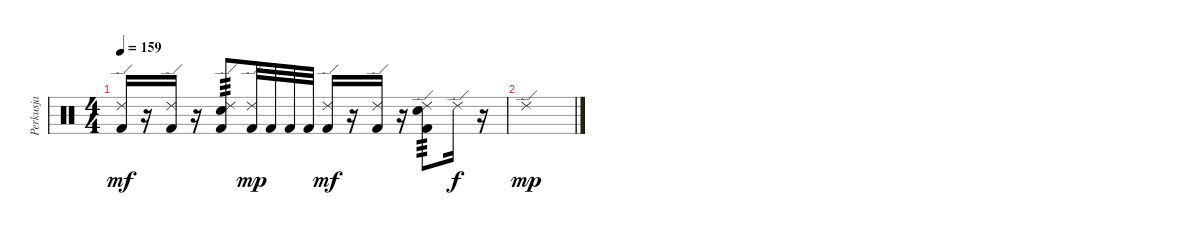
\track ("Perkusja" "Perkusja") {instrument percussion}
\staff {score}
\articulation defaults
\ts (4 4)
\tempo 159
\clef neutral
\ks c
("Ride (edge) 2" "Kick (hit) 2").16{dy mf} r.16 ("Ride (edge) 2" "Kick (hit) 2").16 r.16 ("Ride (edge) 2" "Electric Snare (hit)" "Kick (hit) 2").8{tp 3} ("Ride (edge) 2" "Kick (hit) 2").32{dy mp} "Kick (hit) 2".32 "Kick (hit) 2".32 "Kick (hit) 2".32 ("Ride (edge) 2" "Kick (hit) 2").16{dy mf} r.16 ("Ride (edge) 2" "Kick (hit) 2").16 r.16 ("Ride (edge) 2" "Electric Snare (hit)" "Kick (hit) 2").8{tp 3} "Ride (edge) 2".16{dy f} r.16 |
"Ride (edge) 2".1{dy mp}
